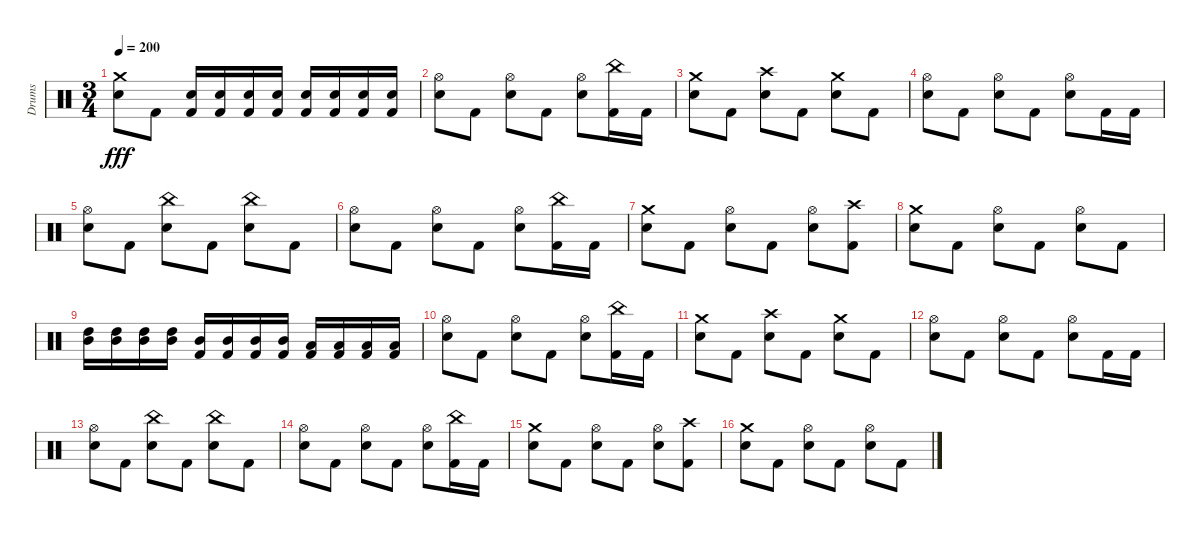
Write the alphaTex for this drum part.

\track ("Drums" "Drums") {instrument percussion}
\staff {score}
\articulation defaults
\ts (3 4)
\tempo 200
\clef neutral
\ks c
("Crash medium (hit)" "Snare (hit) 2").8{dy fff} "Kick (hit) 2".8 ("Kick (hit) 2" "Snare (hit) 2").16 ("Kick (hit) 2" "Snare (hit) 2").16 ("Kick (hit) 2" "Snare (hit) 2").16 ("Kick (hit) 2" "Snare (hit) 2").16 ("Kick (hit) 2" "Snare (hit) 2").16 ("Kick (hit) 2" "Snare (hit) 2").16 ("Kick (hit) 2" "Snare (hit) 2").16 ("Kick (hit) 2" "Snare (hit) 2").16 |
("Hi-Hat (open)" "Snare (hit) 2").8 "Kick (hit) 2".8 ("Hi-Hat (open)" "Snare (hit) 2").8 "Kick (hit) 2".8 ("Hi-Hat (open)" "Snare (hit) 2").8 ("China (hit)" "Kick (hit) 2").16 "Kick (hit) 2".16 |
("Crash medium (hit)" "Snare (hit) 2").8 "Kick (hit) 2".8 ("Crash high (hit)" "Snare (hit) 2").8 "Kick (hit) 2".8 ("Crash medium (hit)" "Snare (hit) 2").8 "Kick (hit) 2".8 |
("Hi-Hat (open)" "Snare (hit) 2").8 "Kick (hit) 2".8 ("Hi-Hat (open)" "Snare (hit) 2").8 "Kick (hit) 2".8 ("Hi-Hat (open)" "Snare (hit) 2").8 "Kick (hit) 2".16 "Kick (hit) 2".16 |
("Hi-Hat (open)" "Snare (hit) 2").8 "Kick (hit) 2".8 ("China (hit)" "Snare (hit) 2").8 "Kick (hit) 2".8 ("China (hit)" "Snare (hit) 2").8 "Kick (hit) 2".8 |
("Hi-Hat (open)" "Snare (hit) 2").8 "Kick (hit) 2".8 ("Hi-Hat (open)" "Snare (hit) 2").8 "Kick (hit) 2".8 ("Hi-Hat (open)" "Snare (hit) 2").8 ("China (hit)" "Kick (hit) 2").16 "Kick (hit) 2".16 |
("Crash medium (hit)" "Snare (hit) 2").8 "Kick (hit) 2".8 ("Hi-Hat (open)" "Snare (hit) 2").8 "Kick (hit) 2".8 ("Hi-Hat (open)" "Snare (hit) 2").8 ("Crash high (hit)" "Kick (hit) 2").8 |
("Crash medium (hit)" "Snare (hit) 2").8 "Kick (hit) 2".8 ("Hi-Hat (open)" "Snare (hit) 2").8 "Kick (hit) 2".8 ("Hi-Hat (open)" "Snare (hit) 2").8 "Kick (hit) 2".8 |
("High Tom (hit)" "Mid Tom (hit)").16 ("High Tom (hit)" "Mid Tom (hit)").16 ("High Tom (hit)" "Mid Tom (hit)").16 ("High Tom (hit)" "Mid Tom (hit)").16 ("Mid Tom (hit)" "Kick (hit) 2").16 ("Mid Tom (hit)" "Kick (hit) 2").16 ("Mid Tom (hit)" "Kick (hit) 2").16 ("Mid Tom (hit)" "Kick (hit) 2").16 ("Low Tom (hit)" "Kick (hit) 2").16 ("Low Tom (hit)" "Kick (hit) 2").16 ("Low Tom (hit)" "Kick (hit) 2").16 ("Low Tom (hit)" "Kick (hit) 2").16 |
("Hi-Hat (open)" "Snare (hit) 2").8 "Kick (hit) 2".8 ("Hi-Hat (open)" "Snare (hit) 2").8 "Kick (hit) 2".8 ("Hi-Hat (open)" "Snare (hit) 2").8 ("China (hit)" "Kick (hit) 2").16 "Kick (hit) 2".16 |
("Crash medium (hit)" "Snare (hit) 2").8 "Kick (hit) 2".8 ("Crash high (hit)" "Snare (hit) 2").8 "Kick (hit) 2".8 ("Crash medium (hit)" "Snare (hit) 2").8 "Kick (hit) 2".8 |
("Hi-Hat (open)" "Snare (hit) 2").8 "Kick (hit) 2".8 ("Hi-Hat (open)" "Snare (hit) 2").8 "Kick (hit) 2".8 ("Hi-Hat (open)" "Snare (hit) 2").8 "Kick (hit) 2".16 "Kick (hit) 2".16 |
("Hi-Hat (open)" "Snare (hit) 2").8 "Kick (hit) 2".8 ("China (hit)" "Snare (hit) 2").8 "Kick (hit) 2".8 ("China (hit)" "Snare (hit) 2").8 "Kick (hit) 2".8 |
("Hi-Hat (open)" "Snare (hit) 2").8 "Kick (hit) 2".8 ("Hi-Hat (open)" "Snare (hit) 2").8 "Kick (hit) 2".8 ("Hi-Hat (open)" "Snare (hit) 2").8 ("China (hit)" "Kick (hit) 2").16 "Kick (hit) 2".16 |
("Crash medium (hit)" "Snare (hit) 2").8 "Kick (hit) 2".8 ("Hi-Hat (open)" "Snare (hit) 2").8 "Kick (hit) 2".8 ("Hi-Hat (open)" "Snare (hit) 2").8 ("Crash high (hit)" "Kick (hit) 2").8 |
("Crash medium (hit)" "Snare (hit) 2").8 "Kick (hit) 2".8 ("Hi-Hat (open)" "Snare (hit) 2").8 "Kick (hit) 2".8 ("Hi-Hat (open)" "Snare (hit) 2").8 "Kick (hit) 2".8
